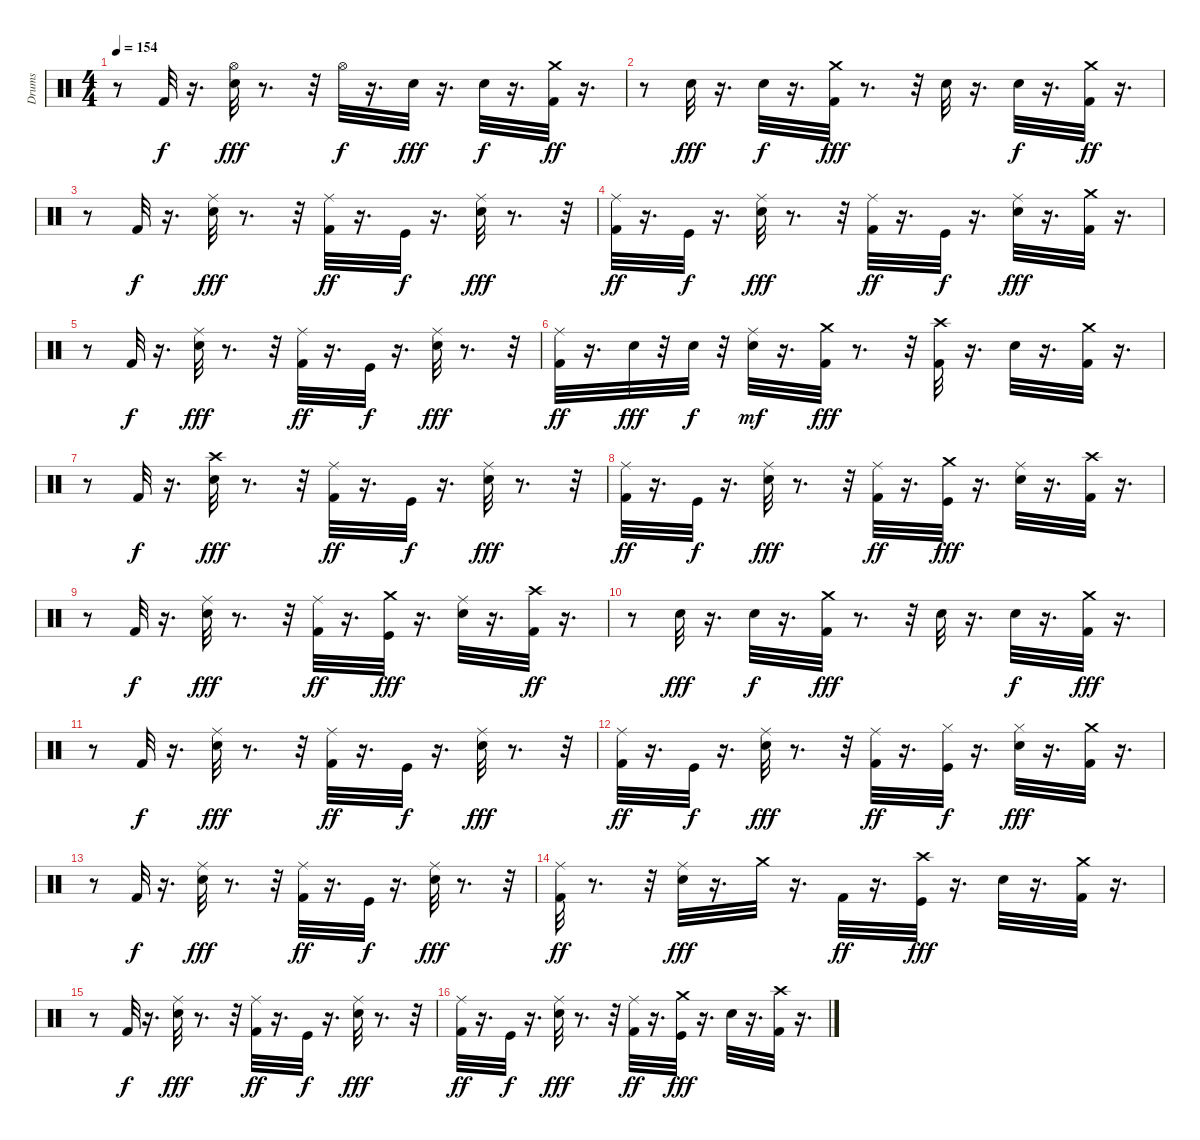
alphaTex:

\track ("Drums" "Drums") {instrument percussion}
\staff {score}
\articulation defaults
\ts (4 4)
\tempo 154
\clef neutral
\ks c
r.8{dy ff} "Kick (hit) 2".32{dy f} r.16{d} ("Snare (hit) 2" "Hi-Hat (open)").32{dy fff} r.8{d} r.32 "Hi-Hat (open)".32{dy f} r.16{d} "Snare (hit) 2".32{dy fff} r.16{d} "Snare (hit) 2".32{dy f} r.16{d} ("Crash medium (hit)" "Kick (hit) 2").32{dy ff} r.16{d} |
r.8 "Snare (hit) 2".32{dy fff} r.16{d} "Snare (hit) 2".32{dy f} r.16{d} ("Kick (hit) 2" "Crash medium (hit)").32{dy fff} r.8{d} r.32 "Snare (hit) 2".32 r.16{d} "Snare (hit) 2".32{dy f} r.16{d} ("Crash medium (hit)" "Kick (hit) 2").32{dy ff} r.16{d} |
r.8 "Kick (hit) 2".32{dy f} r.16{d} ("Snare (hit) 2" "Ride (middle)").32{dy fff} r.8{d} r.32 ("Kick (hit) 2" "Ride (middle)").32{dy ff} r.16{d} "Kick (hit)".32{dy f} r.16{d} ("Snare (hit) 2" "Ride (middle)").32{dy fff} r.8{d} r.32 |
("Kick (hit) 2" "Ride (middle)").32{dy ff} r.16{d} "Kick (hit)".32{dy f} r.16{d} ("Snare (hit) 2" "Ride (middle)").32{dy fff} r.8{d} r.32 ("Ride (middle)" "Kick (hit) 2").32{dy ff} r.16{d} "Kick (hit)".32{dy f} r.16{d} ("Snare (hit) 2" "Ride (middle)").32{dy fff} r.16{d} ("Kick (hit) 2" "Crash medium (hit)").32 r.16{d} |
r.8 "Kick (hit) 2".32{dy f} r.16{d} ("Snare (hit) 2" "Ride (middle)").32{dy fff} r.8{d} r.32 ("Kick (hit) 2" "Ride (middle)").32{dy ff} r.16{d} "Kick (hit)".32{dy f} r.16{d} ("Snare (hit) 2" "Ride (middle)").32{dy fff} r.8{d} r.32 |
("Kick (hit) 2" "Ride (middle)").32{dy ff} r.16{d} "Snare (hit) 2".32{dy fff} r.32 "Snare (hit) 2".32{dy f} r.32 ("Snare (hit) 2" "Ride (middle)").32{dy mf} r.16{d} ("Kick (hit) 2" "Crash medium (hit)").32{dy fff} r.8{d} r.32 ("Kick (hit) 2" "Crash high (hit)").32 r.16{d} "Snare (hit) 2".32 r.16{d} ("Kick (hit) 2" "Crash medium (hit)").32 r.16{d} |
r.8 "Kick (hit) 2".32{dy f} r.16{d} ("Snare (hit) 2" "Crash high (hit)").32{dy fff} r.8{d} r.32 ("Kick (hit) 2" "Ride (middle)").32{dy ff} r.16{d} "Kick (hit)".32{dy f} r.16{d} ("Snare (hit) 2" "Ride (middle)").32{dy fff} r.8{d} r.32 |
("Kick (hit) 2" "Ride (middle)").32{dy ff} r.16{d} "Kick (hit)".32{dy f} r.16{d} ("Snare (hit) 2" "Ride (middle)").32{dy fff} r.8{d} r.32 ("Kick (hit) 2" "Ride (middle)").32{dy ff} r.16{d} ("Kick (hit)" "Crash medium (hit)").32{dy fff} r.16{d} ("Snare (hit) 2" "Ride (middle)").32 r.16{d} ("Kick (hit) 2" "Crash high (hit)").32 r.16{d} |
r.8 "Kick (hit) 2".32{dy f} r.16{d} ("Snare (hit) 2" "Ride (middle)").32{dy fff} r.8{d} r.32 ("Kick (hit) 2" "Ride (middle)").32{dy ff} r.16{d} ("Kick (hit)" "Crash medium (hit)").32{dy fff} r.16{d} ("Snare (hit) 2" "Ride (middle)").32 r.16{d} ("Kick (hit) 2" "Crash high (hit)").32{dy ff} r.16{d} |
r.8 "Snare (hit) 2".32{dy fff} r.16{d} "Snare (hit) 2".32{dy f} r.16{d} ("Kick (hit) 2" "Crash medium (hit)").32{dy fff} r.8{d} r.32 "Snare (hit) 2".32 r.16{d} "Snare (hit) 2".32{dy f} r.16{d} ("Kick (hit) 2" "Crash medium (hit)").32{dy fff} r.16{d} |
r.8 "Kick (hit) 2".32{dy f} r.16{d} ("Snare (hit) 2" "Ride (middle)").32{dy fff} r.8{d} r.32 ("Kick (hit) 2" "Ride (middle)").32{dy ff} r.16{d} "Kick (hit)".32{dy f} r.16{d} ("Snare (hit) 2" "Ride (middle)").32{dy fff} r.8{d} r.32 |
("Kick (hit) 2" "Ride (middle)").32{dy ff} r.16{d} "Kick (hit)".32{dy f} r.16{d} ("Snare (hit) 2" "Ride (middle)").32{dy fff} r.8{d} r.32 ("Kick (hit) 2" "Ride (middle)").32{dy ff} r.16{d} ("Kick (hit)" "Hi-Hat (closed)").32{dy f} r.16{d} ("Snare (hit) 2" "Hi-Hat (closed)").32{dy fff} r.16{d} ("Kick (hit) 2" "Crash medium (hit)").32 r.16{d} |
r.8 "Kick (hit) 2".32{dy f} r.16{d} ("Snare (hit) 2" "Ride (middle)").32{dy fff} r.8{d} r.32 ("Kick (hit) 2" "Ride (middle)").32{dy ff} r.16{d} "Kick (hit)".32{dy f} r.16{d} ("Snare (hit) 2" "Ride (middle)").32{dy fff} r.8{d} r.32 |
("Kick (hit) 2" "Ride (middle)").32{dy ff} r.8{d} r.32 ("Snare (hit) 2" "Ride (middle)").32{dy fff} r.16{d} "Crash medium (hit)".32 r.16{d} "Kick (hit) 2".32{dy ff} r.16{d} ("Kick (hit)" "Crash high (hit)").32{dy fff} r.16{d} "Snare (hit) 2".32 r.16{d} ("Kick (hit) 2" "Crash medium (hit)").32 r.16{d} |
r.8 "Kick (hit) 2".32{dy f} r.16{d} ("Snare (hit) 2" "Ride (middle)").32{dy fff} r.8{d} r.32 ("Kick (hit) 2" "Ride (middle)").32{dy ff} r.16{d} "Kick (hit)".32{dy f} r.16{d} ("Snare (hit) 2" "Ride (middle)").32{dy fff} r.8{d} r.32 |
("Kick (hit) 2" "Ride (middle)").32{dy ff} r.16{d} "Kick (hit)".32{dy f} r.16{d} ("Snare (hit) 2" "Ride (middle)").32{dy fff} r.8{d} r.32 ("Kick (hit) 2" "Ride (middle)").32{dy ff} r.16{d} ("Kick (hit)" "Crash medium (hit)").32{dy fff} r.16{d} "Snare (hit) 2".32 r.16{d} ("Kick (hit) 2" "Crash high (hit)").32 r.16{d}
